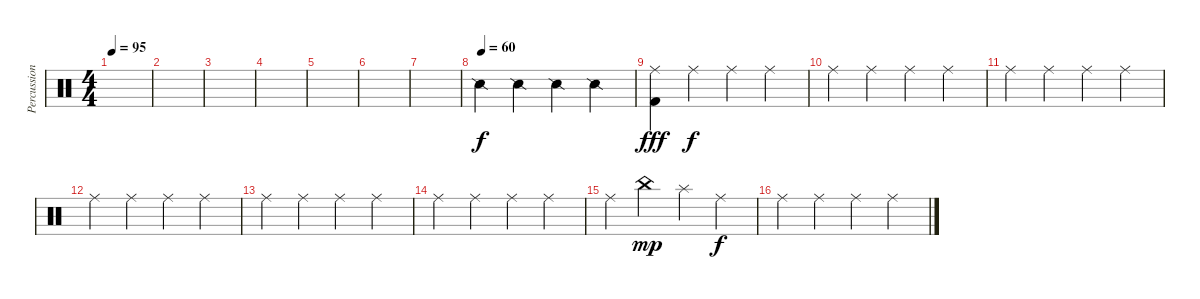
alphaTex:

\track ("Percussions" "Percussion") {instrument percussion}
\staff {score}
\articulation defaults
\ts (4 4)
\tempo 95
\clef neutral
\ks c
|
|
|
|
|
|
|
\tempo (60)
"Snare (side stick) 2".4 "Snare (side stick) 2".4 "Snare (side stick) 2".4 "Snare (side stick) 2".4 |
("Ride (middle)" "Kick (hit) 2").4{dy fff} "Ride (middle)".4{dy f} "Ride (middle)".4 "Ride (middle)".4 |
"Ride (middle)".4 "Ride (middle)".4 "Ride (middle)".4 "Ride (middle)".4 |
"Ride (middle)".4 "Ride (middle)".4 "Ride (middle)".4 "Ride (middle)".4 |
"Ride (middle)".4 "Ride (middle)".4 "Ride (middle)".4 "Ride (middle)".4 |
"Ride (middle)".4 "Ride (middle)".4 "Ride (middle)".4 "Ride (middle)".4 |
"Ride (middle)".4 "Ride (middle)".4 "Ride (middle)".4 "Ride (middle)".4 |
"Ride (middle)".4 "China (hit)".4{dy mp} "Splash (hit)".4 "Ride (middle)".4{dy f} |
"Ride (middle)".4 "Ride (middle)".4 "Ride (middle)".4 "Ride (middle)".4
